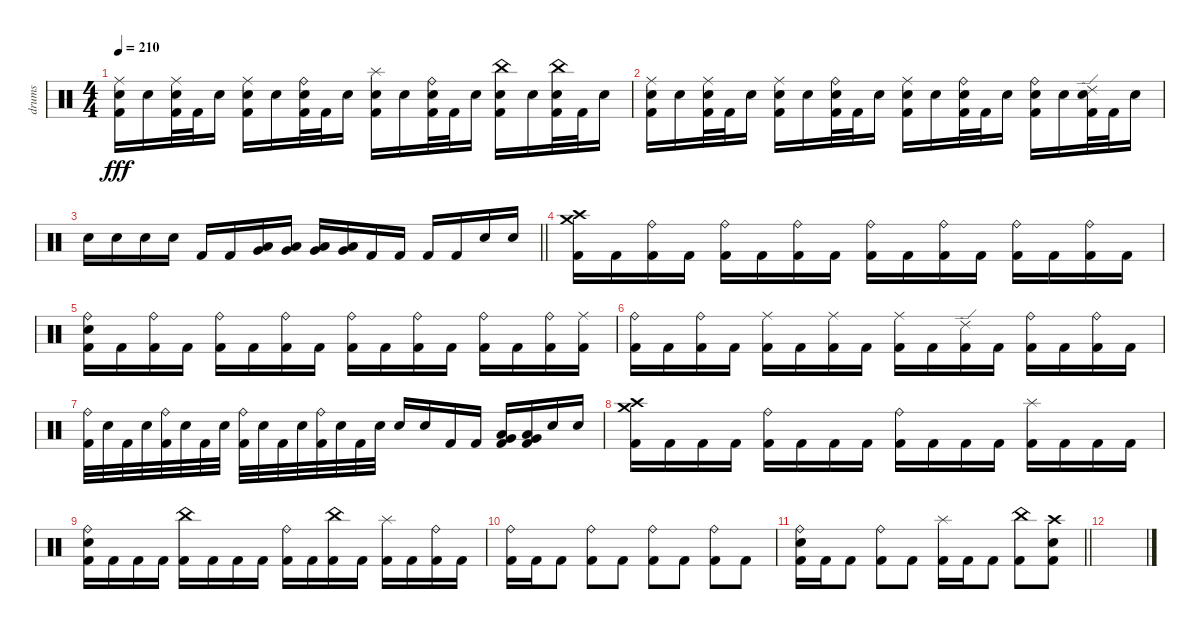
\track ("drums" "drums") {instrument percussion}
\staff {score}
\articulation defaults
\ts (4 4)
\tempo 210
\clef neutral
\ks c
("Ride (middle)" "Electric Snare (hit)" "Kick (hit) 2").16{dy fff} "Electric Snare (hit)".16 ("Ride (middle)" "Electric Snare (hit)" "Kick (hit) 2").32 "Kick (hit) 2".32 "Electric Snare (hit)".16 ("Ride (middle)" "Electric Snare (hit)" "Kick (hit) 2").16 "Electric Snare (hit)".16 ("Ride (bell)" "Electric Snare (hit)" "Kick (hit) 2").32 "Kick (hit) 2".32 "Electric Snare (hit)".16 ("Splash (hit)" "Electric Snare (hit)" "Kick (hit) 2").16 "Electric Snare (hit)".16 ("Ride (bell)" "Electric Snare (hit)" "Kick (hit) 2").32 "Kick (hit) 2".32 "Electric Snare (hit)".16 ("China (hit)" "Electric Snare (hit)" "Kick (hit) 2").16 "Electric Snare (hit)".16 ("China (hit)" "Electric Snare (hit)" "Kick (hit) 2").32 "Kick (hit) 2".32 "Electric Snare (hit)".16 |
("Ride (middle)" "Electric Snare (hit)" "Kick (hit) 2").16 "Electric Snare (hit)".16 ("Ride (middle)" "Electric Snare (hit)" "Kick (hit) 2").32 "Kick (hit) 2".32 "Electric Snare (hit)".16 ("Ride (middle)" "Electric Snare (hit)" "Kick (hit) 2").16 "Electric Snare (hit)".16 ("Ride (bell)" "Electric Snare (hit)" "Kick (hit) 2").32 "Kick (hit) 2".32 "Electric Snare (hit)".16 ("Ride (middle)" "Electric Snare (hit)" "Kick (hit) 2").16 "Electric Snare (hit)".16 ("Ride (bell)" "Electric Snare (hit)" "Kick (hit) 2").32 "Kick (hit) 2".32 "Electric Snare (hit)".16 ("Ride (bell)" "Electric Snare (hit)" "Kick (hit) 2").16 "Electric Snare (hit)".16 ("Ride (edge) 2" "Electric Snare (hit)" "Kick (hit) 2").32 "Kick (hit) 2".32 "Electric Snare (hit)".16 |
\barLineRight lightlight "Electric Snare (hit)".16 "Electric Snare (hit)".16 "Electric Snare (hit)".16 "Electric Snare (hit)".16 "Kick (hit) 2".16 "Kick (hit) 2".16
("Low Tom (hit)" "Very Low Tom (hit)").16 ("Low Tom (hit)" "Very Low Tom (hit)").16 ("Very Low Tom (hit)" "Low Floor Tom (hit)").16 ("Very Low Tom (hit)" "Low Floor Tom (hit)").16 "Kick (hit) 2".16 "Kick (hit) 2".16 "Kick (hit) 2".16 "Kick (hit) 2".16 "Electric Snare (hit)".16 "Electric Snare (hit)".16 |
\section ("" "")
("Crash high (hit)" "Crash medium (hit)" "Kick (hit) 2").16 "Kick (hit) 2".16 ("Ride (bell)" "Kick (hit) 2").16 "Kick (hit) 2".16 ("Ride (bell)" "Kick (hit) 2").16 "Kick (hit) 2".16 ("Ride (bell)" "Kick (hit) 2").16 "Kick (hit) 2".16 ("Ride (bell)" "Kick (hit) 2").16 "Kick (hit) 2".16 ("Ride (bell)" "Kick (hit) 2").16 "Kick (hit) 2".16 ("Ride (bell)" "Kick (hit) 2").16 "Kick (hit) 2".16 ("Ride (bell)" "Kick (hit) 2").16 "Kick (hit) 2".16 |
("Ride (bell)" "Electric Snare (hit)" "Kick (hit) 2").16 "Kick (hit) 2".16 ("Ride (bell)" "Kick (hit) 2").16 "Kick (hit) 2".16 ("Ride (bell)" "Kick (hit) 2").16 "Kick (hit) 2".16 ("Ride (bell)" "Kick (hit) 2").16 "Kick (hit) 2".16 ("Ride (bell)" "Kick (hit) 2").16 "Kick (hit) 2".16 ("Ride (bell)" "Kick (hit) 2").16 "Kick (hit) 2".16 ("Ride (bell)" "Kick (hit) 2").16 "Kick (hit) 2".16 ("Ride (bell)" "Kick (hit) 2").16 ("Ride (middle)" "Kick (hit) 2").16 |
("Ride (bell)" "Kick (hit) 2").16 "Kick (hit) 2".16 ("Ride (bell)" "Kick (hit) 2").16 "Kick (hit) 2".16 ("Ride (middle)" "Kick (hit) 2").16 "Kick (hit) 2".16 ("Ride (middle)" "Kick (hit) 2").16 "Kick (hit) 2".16 ("Ride (middle)" "Kick (hit) 2").16 "Kick (hit) 2".16 ("Ride (edge) 2" "Kick (hit) 2").16 "Kick (hit) 2".16 ("Ride (bell)" "Kick (hit) 2").16 "Kick (hit) 2".16 ("Ride (bell)" "Kick (hit) 2").16 "Kick (hit) 2".16 |
("Ride (bell)" "Kick (hit) 2").32 "Electric Snare (hit)".32 "Kick (hit) 2".32 "Electric Snare (hit)".32 ("Ride (bell)" "Kick (hit) 2").32 "Electric Snare (hit)".32 "Kick (hit) 2".32 "Electric Snare (hit)".32 ("Ride (bell)" "Kick (hit) 2").32 "Electric Snare (hit)".32 "Kick (hit) 2".32 "Electric Snare (hit)".32 ("Ride (bell)" "Kick (hit) 2").32 "Electric Snare (hit)".32 "Kick (hit) 2".32 "Electric Snare (hit)".32 "Electric Snare (hit)".16 "Electric Snare (hit)".16 "Kick (hit) 2".16 "Kick (hit) 2".16 ("Low Tom (hit)" "Very Low Tom (hit)" "Kick (hit) 2").16 ("Very Low Tom (hit)" "Low Floor Tom (hit)" "Kick (hit) 2").16 "Electric Snare (hit)".16 "Electric Snare (hit)".16 |
("Crash high (hit)" "Crash medium (hit)" "Kick (hit) 2").16 "Kick (hit) 2".16 "Kick (hit) 2".16 "Kick (hit) 2".16 ("Ride (bell)" "Kick (hit) 2").16 "Kick (hit) 2".16 "Kick (hit) 2".16 "Kick (hit) 2".16 ("Ride (bell)" "Kick (hit) 2").16 "Kick (hit) 2".16 "Kick (hit) 2".16 "Kick (hit) 2".16 ("Splash (hit)" "Kick (hit) 2").16 "Kick (hit) 2".16 "Kick (hit) 2".16 "Kick (hit) 2".16 |
("Ride (bell)" "Electric Snare (hit)" "Kick (hit) 2").16 "Kick (hit) 2".16 "Kick (hit) 2".16 "Kick (hit) 2".16 ("China (hit)" "Kick (hit) 2").16 "Kick (hit) 2".16 "Kick (hit) 2".16 "Kick (hit) 2".16 ("Ride (bell)" "Kick (hit) 2").16 "Kick (hit) 2".16 ("China (hit)" "Kick (hit) 2").16 "Kick (hit) 2".16 ("Splash (hit)" "Kick (hit) 2").16 "Kick (hit) 2".16 ("Ride (bell)" "Kick (hit) 2").16 "Kick (hit) 2".16 |
("Ride (bell)" "Kick (hit) 2").16 "Kick (hit) 2".16 "Kick (hit) 2".8 ("Ride (bell)" "Kick (hit) 2").8 "Kick (hit) 2".8 ("Ride (bell)" "Kick (hit) 2").8 "Kick (hit) 2".8 ("Ride (bell)" "Kick (hit) 2").8 "Kick (hit) 2".8 |
\barLineRight lightlight
("Ride (bell)" "Electric Snare (hit)" "Kick (hit) 2").16 "Kick (hit) 2".16 "Kick (hit) 2".8 ("Ride (bell)" "Kick (hit) 2").8 "Kick (hit) 2".8 ("Splash (hit)" "Kick (hit) 2").16 "Kick (hit) 2".16 "Kick (hit) 2".8 ("China (hit)" "Kick (hit) 2").8 ("Crash high (hit)" "Electric Snare (hit)" "Kick (hit) 2").8 |
\section ("" "")
